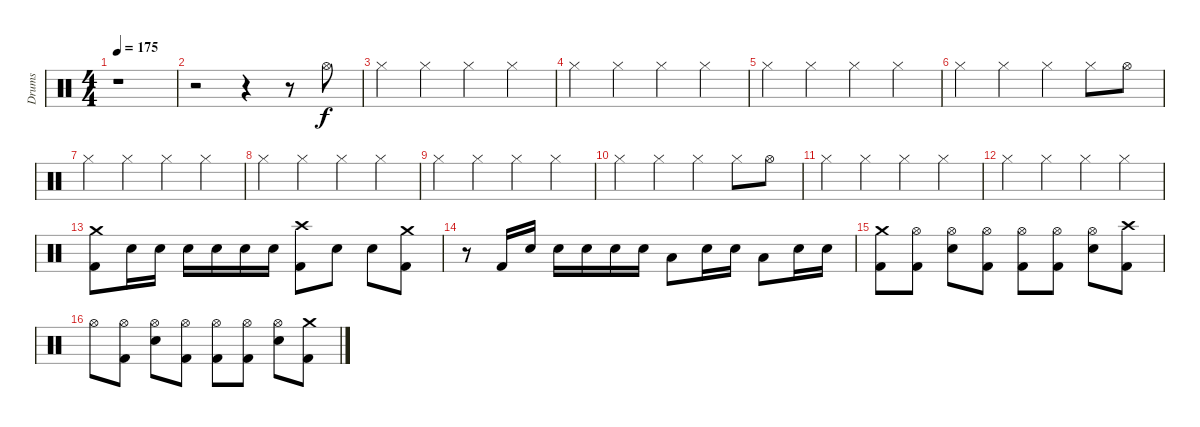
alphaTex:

\track ("Drums" "Drums") {instrument percussion}
\staff {score}
\articulation defaults
\ts (4 4)
\tempo 175
\clef neutral
\ks c
r.1{dy f} |
r.2 r.4 r.8 "Hi-Hat (open)".8 |
"Hi-Hat (closed)".4 "Hi-Hat (closed)".4 "Hi-Hat (closed)".4 "Hi-Hat (closed)".4 |
"Hi-Hat (closed)".4 "Hi-Hat (closed)".4 "Hi-Hat (closed)".4 "Hi-Hat (closed)".4 |
"Hi-Hat (closed)".4 "Hi-Hat (closed)".4 "Hi-Hat (closed)".4 "Hi-Hat (closed)".4 |
"Hi-Hat (closed)".4 "Hi-Hat (closed)".4 "Hi-Hat (closed)".4 "Hi-Hat (closed)".8 "Hi-Hat (open)".8 |
"Hi-Hat (closed)".4 "Hi-Hat (closed)".4 "Hi-Hat (closed)".4 "Hi-Hat (closed)".4 |
"Hi-Hat (closed)".4 "Hi-Hat (closed)".4 "Hi-Hat (closed)".4 "Hi-Hat (closed)".4 |
"Hi-Hat (closed)".4 "Hi-Hat (closed)".4 "Hi-Hat (closed)".4 "Hi-Hat (closed)".4 |
"Hi-Hat (closed)".4 "Hi-Hat (closed)".4 "Hi-Hat (closed)".4 "Hi-Hat (closed)".8 "Hi-Hat (open)".8 |
"Hi-Hat (closed)".4 "Hi-Hat (closed)".4 "Hi-Hat (closed)".4 "Hi-Hat (closed)".4 |
"Hi-Hat (closed)".4 "Hi-Hat (closed)".4 "Hi-Hat (closed)".4 "Hi-Hat (closed)".4 |
("Kick (hit) 2" "Crash medium (hit)").8 "Snare (hit) 2".16 "Snare (hit) 2".16 "Snare (hit) 2".16 "Snare (hit) 2".16 "Snare (hit) 2".16 "Snare (hit) 2".16 ("Kick (hit) 2" "Crash high (hit)").8 "Snare (hit) 2".8 "Snare (hit) 2".8 ("Kick (hit) 2" "Crash medium (hit)").8 |
r.8 "Kick (hit) 2".16 "Snare (hit) 2".16 "Snare (hit) 2".16 "Snare (hit) 2".16 "Snare (hit) 2".16 "Snare (hit) 2".16 "Low Tom (hit)".8 "Snare (hit) 2".16 "Snare (hit) 2".16 "Low Tom (hit)".8 "Snare (hit) 2".16 "Snare (hit) 2".16 |
("Kick (hit) 2" "Crash medium (hit)").8 ("Kick (hit) 2" "Hi-Hat (open)").8 ("Snare (hit) 2" "Hi-Hat (open)").8 ("Kick (hit) 2" "Hi-Hat (open)").8 ("Kick (hit) 2" "Hi-Hat (open)").8 ("Kick (hit) 2" "Hi-Hat (open)").8 ("Snare (hit) 2" "Hi-Hat (open)").8 ("Kick (hit) 2" "Crash high (hit)").8 |
"Hi-Hat (open)".8 ("Kick (hit) 2" "Hi-Hat (open)").8 ("Snare (hit) 2" "Hi-Hat (open)").8 ("Kick (hit) 2" "Hi-Hat (open)").8 ("Kick (hit) 2" "Hi-Hat (open)").8 ("Kick (hit) 2" "Hi-Hat (open)").8 ("Snare (hit) 2" "Hi-Hat (open)").8 ("Kick (hit) 2" "Crash medium (hit)").8
